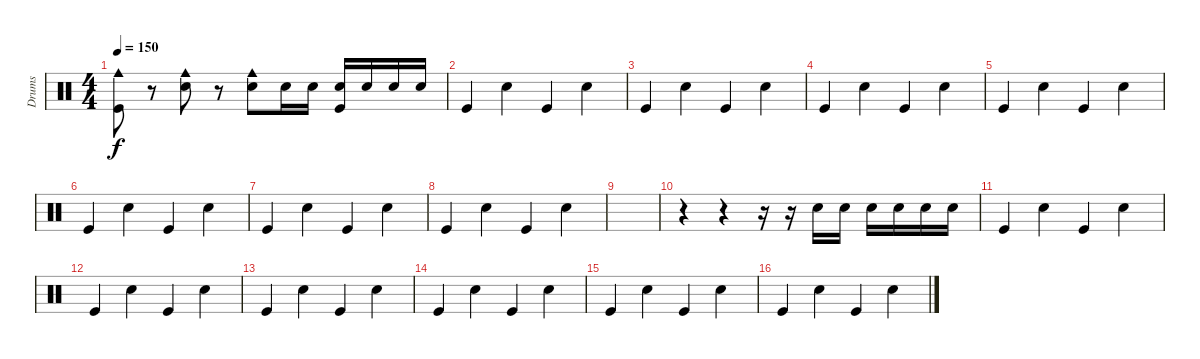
\track ("Drums" "Drums") {instrument percussion}
\staff {score}
\articulation defaults
\ts (4 4)
\tempo 150
\clef neutral
\ks c
("Cowbell medium (hit)" "Kick (hit)").8{dy f} r.8 ("Cowbell medium (hit)" "Snare (hit) 2").8 r.8 ("Cowbell medium (hit)" "Snare (hit) 2").8 "Snare (hit) 2".16 "Snare (hit) 2".16 ("Snare (hit) 2" "Kick (hit)").16 "Snare (hit) 2".16 "Snare (hit) 2".16 "Snare (hit) 2".16 |
"Kick (hit)".4 "Snare (hit) 2".4 "Kick (hit)".4 "Snare (hit) 2".4 |
"Kick (hit)".4 "Snare (hit) 2".4 "Kick (hit)".4 "Snare (hit) 2".4 |
"Kick (hit)".4 "Snare (hit) 2".4 "Kick (hit)".4 "Snare (hit) 2".4 |
"Kick (hit)".4 "Snare (hit) 2".4 "Kick (hit)".4 "Snare (hit) 2".4 |
"Kick (hit)".4 "Snare (hit) 2".4 "Kick (hit)".4 "Snare (hit) 2".4 |
"Kick (hit)".4 "Snare (hit) 2".4 "Kick (hit)".4 "Snare (hit) 2".4 |
"Kick (hit)".4 "Snare (hit) 2".4 "Kick (hit)".4 "Snare (hit) 2".4 |
|
r.4 r.4 r.16 r.16 "Snare (hit) 2".16 "Snare (hit) 2".16 "Snare (hit) 2".16 "Snare (hit) 2".16 "Snare (hit) 2".16 "Snare (hit) 2".16 |
"Kick (hit)".4 "Snare (hit) 2".4 "Kick (hit)".4 "Snare (hit) 2".4 |
"Kick (hit)".4 "Snare (hit) 2".4 "Kick (hit)".4 "Snare (hit) 2".4 |
"Kick (hit)".4 "Snare (hit) 2".4 "Kick (hit)".4 "Snare (hit) 2".4 |
"Kick (hit)".4 "Snare (hit) 2".4 "Kick (hit)".4 "Snare (hit) 2".4 |
"Kick (hit)".4 "Snare (hit) 2".4 "Kick (hit)".4 "Snare (hit) 2".4 |
"Kick (hit)".4 "Snare (hit) 2".4 "Kick (hit)".4 "Snare (hit) 2".4
